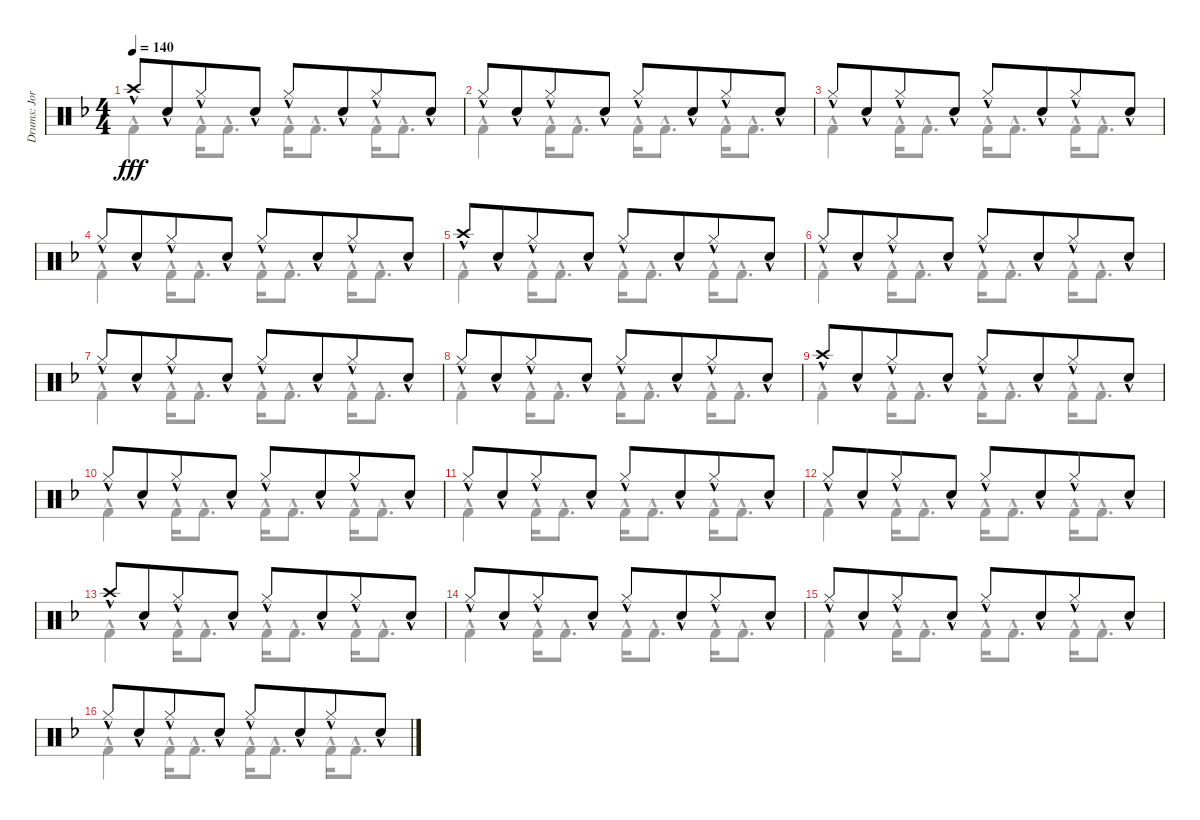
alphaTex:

\track ("Drums: Jorg" "Drums: Jor") {instrument percussion}
\staff {score}
\articulation defaults
\voice
\ts (4 4)
\tempo 140
\clef neutral
\ks f "Crash high (hit)"{hac}.8{dy fff} "Snare (hit) 2"{hac}.8{beam merge} "Hi-Hat (closed)"{hac}.8 "Snare (hit) 2"{hac}.8 "Hi-Hat (closed)"{hac}.8 "Snare (hit) 2"{hac}.8{beam merge} "Hi-Hat (closed)"{hac}.8 "Snare (hit) 2"{hac}.8
|
"Hi-Hat (closed)"{hac}.8 "Snare (hit) 2"{hac}.8{beam merge} "Hi-Hat (closed)"{hac}.8 "Snare (hit) 2"{hac}.8 "Hi-Hat (closed)"{hac}.8 "Snare (hit) 2"{hac}.8{beam merge} "Hi-Hat (closed)"{hac}.8 "Snare (hit) 2"{hac}.8 |
"Hi-Hat (closed)"{hac}.8 "Snare (hit) 2"{hac}.8{beam merge} "Hi-Hat (closed)"{hac}.8 "Snare (hit) 2"{hac}.8 "Hi-Hat (closed)"{hac}.8 "Snare (hit) 2"{hac}.8{beam merge} "Hi-Hat (closed)"{hac}.8 "Snare (hit) 2"{hac}.8 |
"Hi-Hat (closed)"{hac}.8 "Snare (hit) 2"{hac}.8{beam merge} "Hi-Hat (closed)"{hac}.8 "Snare (hit) 2"{hac}.8 "Hi-Hat (closed)"{hac}.8 "Snare (hit) 2"{hac}.8{beam merge} "Hi-Hat (closed)"{hac}.8 "Snare (hit) 2"{hac}.8 |
"Crash high (hit)"{hac}.8 "Snare (hit) 2"{hac}.8{beam merge} "Hi-Hat (closed)"{hac}.8 "Snare (hit) 2"{hac}.8 "Hi-Hat (closed)"{hac}.8 "Snare (hit) 2"{hac}.8{beam merge} "Hi-Hat (closed)"{hac}.8 "Snare (hit) 2"{hac}.8 |
"Hi-Hat (closed)"{hac}.8 "Snare (hit) 2"{hac}.8{beam merge} "Hi-Hat (closed)"{hac}.8 "Snare (hit) 2"{hac}.8 "Hi-Hat (closed)"{hac}.8 "Snare (hit) 2"{hac}.8{beam merge} "Hi-Hat (closed)"{hac}.8 "Snare (hit) 2"{hac}.8 |
"Hi-Hat (closed)"{hac}.8 "Snare (hit) 2"{hac}.8{beam merge} "Hi-Hat (closed)"{hac}.8 "Snare (hit) 2"{hac}.8 "Hi-Hat (closed)"{hac}.8 "Snare (hit) 2"{hac}.8{beam merge} "Hi-Hat (closed)"{hac}.8 "Snare (hit) 2"{hac}.8 |
"Hi-Hat (closed)"{hac}.8 "Snare (hit) 2"{hac}.8{beam merge} "Hi-Hat (closed)"{hac}.8 "Snare (hit) 2"{hac}.8 "Hi-Hat (closed)"{hac}.8 "Snare (hit) 2"{hac}.8{beam merge} "Hi-Hat (closed)"{hac}.8 "Snare (hit) 2"{hac}.8 |
"Crash high (hit)"{hac}.8 "Snare (hit) 2"{hac}.8{beam merge} "Hi-Hat (closed)"{hac}.8 "Snare (hit) 2"{hac}.8 "Hi-Hat (closed)"{hac}.8 "Snare (hit) 2"{hac}.8{beam merge} "Hi-Hat (closed)"{hac}.8 "Snare (hit) 2"{hac}.8 |
"Hi-Hat (closed)"{hac}.8 "Snare (hit) 2"{hac}.8{beam merge} "Hi-Hat (closed)"{hac}.8 "Snare (hit) 2"{hac}.8 "Hi-Hat (closed)"{hac}.8 "Snare (hit) 2"{hac}.8{beam merge} "Hi-Hat (closed)"{hac}.8 "Snare (hit) 2"{hac}.8 |
"Hi-Hat (closed)"{hac}.8 "Snare (hit) 2"{hac}.8{beam merge} "Hi-Hat (closed)"{hac}.8 "Snare (hit) 2"{hac}.8 "Hi-Hat (closed)"{hac}.8 "Snare (hit) 2"{hac}.8{beam merge} "Hi-Hat (closed)"{hac}.8 "Snare (hit) 2"{hac}.8 |
"Hi-Hat (closed)"{hac}.8 "Snare (hit) 2"{hac}.8{beam merge} "Hi-Hat (closed)"{hac}.8 "Snare (hit) 2"{hac}.8 "Hi-Hat (closed)"{hac}.8 "Snare (hit) 2"{hac}.8{beam merge} "Hi-Hat (closed)"{hac}.8 "Snare (hit) 2"{hac}.8 |
"Crash high (hit)"{hac}.8 "Snare (hit) 2"{hac}.8{beam merge} "Hi-Hat (closed)"{hac}.8 "Snare (hit) 2"{hac}.8 "Hi-Hat (closed)"{hac}.8 "Snare (hit) 2"{hac}.8{beam merge} "Hi-Hat (closed)"{hac}.8 "Snare (hit) 2"{hac}.8 |
"Hi-Hat (closed)"{hac}.8 "Snare (hit) 2"{hac}.8{beam merge} "Hi-Hat (closed)"{hac}.8 "Snare (hit) 2"{hac}.8 "Hi-Hat (closed)"{hac}.8 "Snare (hit) 2"{hac}.8{beam merge} "Hi-Hat (closed)"{hac}.8 "Snare (hit) 2"{hac}.8 |
"Hi-Hat (closed)"{hac}.8 "Snare (hit) 2"{hac}.8{beam merge} "Hi-Hat (closed)"{hac}.8 "Snare (hit) 2"{hac}.8 "Hi-Hat (closed)"{hac}.8 "Snare (hit) 2"{hac}.8{beam merge} "Hi-Hat (closed)"{hac}.8 "Snare (hit) 2"{hac}.8 |
"Hi-Hat (closed)"{hac}.8 "Snare (hit) 2"{hac}.8{beam merge} "Hi-Hat (closed)"{hac}.8 "Snare (hit) 2"{hac}.8 "Hi-Hat (closed)"{hac}.8 "Snare (hit) 2"{hac}.8{beam merge} "Hi-Hat (closed)"{hac}.8 "Snare (hit) 2"{hac}.8
\voice
\clef neutral
\ottava regular
\simile none
\ks f "Kick (hit) 2"{hac}.4{dy fff} "Kick (hit) 2"{hac}.16 "Kick (hit) 2"{hac}.8{d} "Kick (hit) 2"{hac}.16 "Kick (hit) 2"{hac}.8{d} "Kick (hit) 2"{hac}.16 "Kick (hit) 2"{hac}.8{d}
|
"Kick (hit) 2"{hac}.4 "Kick (hit) 2"{hac}.16 "Kick (hit) 2"{hac}.8{d} "Kick (hit) 2"{hac}.16 "Kick (hit) 2"{hac}.8{d} "Kick (hit) 2"{hac}.16 "Kick (hit) 2"{hac}.8{d} |
"Kick (hit) 2"{hac}.4 "Kick (hit) 2"{hac}.16 "Kick (hit) 2"{hac}.8{d} "Kick (hit) 2"{hac}.16 "Kick (hit) 2"{hac}.8{d} "Kick (hit) 2"{hac}.16 "Kick (hit) 2"{hac}.8{d} |
"Kick (hit) 2"{hac}.4 "Kick (hit) 2"{hac}.16 "Kick (hit) 2"{hac}.8{d} "Kick (hit) 2"{hac}.16 "Kick (hit) 2"{hac}.8{d} "Kick (hit) 2"{hac}.16 "Kick (hit) 2"{hac}.8{d} |
"Kick (hit) 2"{hac}.4 "Kick (hit) 2"{hac}.16 "Kick (hit) 2"{hac}.8{d} "Kick (hit) 2"{hac}.16 "Kick (hit) 2"{hac}.8{d} "Kick (hit) 2"{hac}.16 "Kick (hit) 2"{hac}.8{d} |
"Kick (hit) 2"{hac}.4 "Kick (hit) 2"{hac}.16 "Kick (hit) 2"{hac}.8{d} "Kick (hit) 2"{hac}.16 "Kick (hit) 2"{hac}.8{d} "Kick (hit) 2"{hac}.16 "Kick (hit) 2"{hac}.8{d} |
"Kick (hit) 2"{hac}.4 "Kick (hit) 2"{hac}.16 "Kick (hit) 2"{hac}.8{d} "Kick (hit) 2"{hac}.16 "Kick (hit) 2"{hac}.8{d} "Kick (hit) 2"{hac}.16 "Kick (hit) 2"{hac}.8{d} |
"Kick (hit) 2"{hac}.4 "Kick (hit) 2"{hac}.16 "Kick (hit) 2"{hac}.8{d} "Kick (hit) 2"{hac}.16 "Kick (hit) 2"{hac}.8{d} "Kick (hit) 2"{hac}.16 "Kick (hit) 2"{hac}.8{d} |
"Kick (hit) 2"{hac}.4 "Kick (hit) 2"{hac}.16 "Kick (hit) 2"{hac}.8{d} "Kick (hit) 2"{hac}.16 "Kick (hit) 2"{hac}.8{d} "Kick (hit) 2"{hac}.16 "Kick (hit) 2"{hac}.8{d} |
"Kick (hit) 2"{hac}.4 "Kick (hit) 2"{hac}.16 "Kick (hit) 2"{hac}.8{d} "Kick (hit) 2"{hac}.16 "Kick (hit) 2"{hac}.8{d} "Kick (hit) 2"{hac}.16 "Kick (hit) 2"{hac}.8{d} |
"Kick (hit) 2"{hac}.4 "Kick (hit) 2"{hac}.16 "Kick (hit) 2"{hac}.8{d} "Kick (hit) 2"{hac}.16 "Kick (hit) 2"{hac}.8{d} "Kick (hit) 2"{hac}.16 "Kick (hit) 2"{hac}.8{d} |
"Kick (hit) 2"{hac}.4 "Kick (hit) 2"{hac}.16 "Kick (hit) 2"{hac}.8{d} "Kick (hit) 2"{hac}.16 "Kick (hit) 2"{hac}.8{d} "Kick (hit) 2"{hac}.16 "Kick (hit) 2"{hac}.8{d} |
"Kick (hit) 2"{hac}.4 "Kick (hit) 2"{hac}.16 "Kick (hit) 2"{hac}.8{d} "Kick (hit) 2"{hac}.16 "Kick (hit) 2"{hac}.8{d} "Kick (hit) 2"{hac}.16 "Kick (hit) 2"{hac}.8{d} |
"Kick (hit) 2"{hac}.4 "Kick (hit) 2"{hac}.16 "Kick (hit) 2"{hac}.8{d} "Kick (hit) 2"{hac}.16 "Kick (hit) 2"{hac}.8{d} "Kick (hit) 2"{hac}.16 "Kick (hit) 2"{hac}.8{d} |
"Kick (hit) 2"{hac}.4 "Kick (hit) 2"{hac}.16 "Kick (hit) 2"{hac}.8{d} "Kick (hit) 2"{hac}.16 "Kick (hit) 2"{hac}.8{d} "Kick (hit) 2"{hac}.16 "Kick (hit) 2"{hac}.8{d} |
"Kick (hit) 2"{hac}.4 "Kick (hit) 2"{hac}.16 "Kick (hit) 2"{hac}.8{d} "Kick (hit) 2"{hac}.16 "Kick (hit) 2"{hac}.8{d} "Kick (hit) 2"{hac}.16 "Kick (hit) 2"{hac}.8{d}
